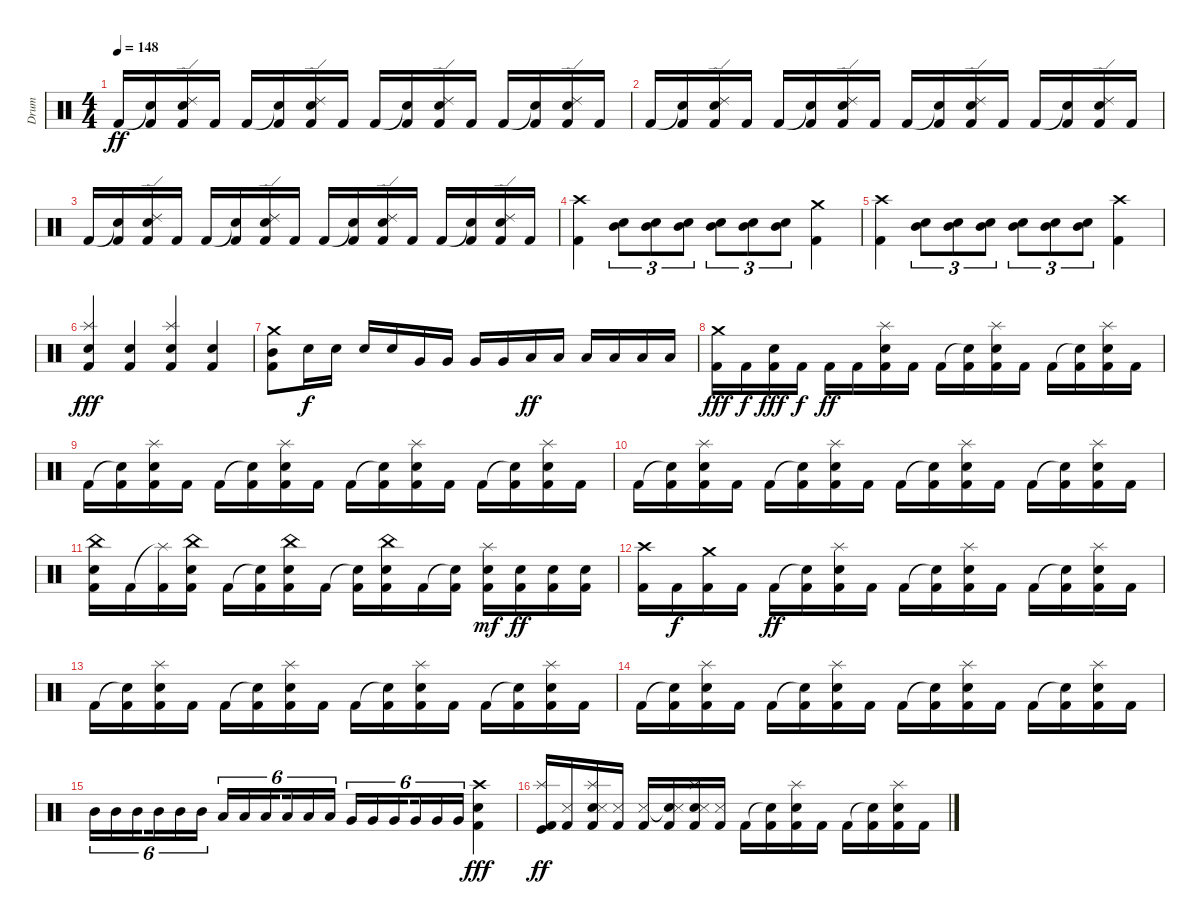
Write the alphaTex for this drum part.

\track ("Drum" "Drum") {instrument percussion}
\staff {score}
\articulation defaults
\ts (4 4)
\tempo 148
\clef neutral
\ks c "Kick (hit) 2".16{dy ff}
("Snare (hit)"{t} "Kick (hit) 2").16 ("Ride (edge) 2" "Snare (hit) 2" "Kick (hit) 2").16 "Kick (hit) 2".16 "Kick (hit) 2".16 ("Snare (hit)"{t} "Kick (hit) 2").16 ("Ride (edge) 2" "Snare (hit) 2" "Kick (hit) 2").16 "Kick (hit) 2".16 "Kick (hit) 2".16 ("Snare (hit)"{t} "Kick (hit) 2").16 ("Ride (edge) 2" "Snare (hit) 2" "Kick (hit) 2").16 "Kick (hit) 2".16 "Kick (hit) 2".16 ("Snare (hit)"{t} "Kick (hit) 2").16 ("Ride (edge) 2" "Snare (hit) 2" "Kick (hit) 2").16 "Kick (hit) 2".16 |
"Kick (hit) 2".16 ("Snare (hit)"{t} "Kick (hit) 2").16 ("Ride (edge) 2" "Snare (hit) 2" "Kick (hit) 2").16 "Kick (hit) 2".16 "Kick (hit) 2".16 ("Snare (hit)"{t} "Kick (hit) 2").16 ("Ride (edge) 2" "Snare (hit) 2" "Kick (hit) 2").16 "Kick (hit) 2".16 "Kick (hit) 2".16 ("Snare (hit)"{t} "Kick (hit) 2").16 ("Ride (edge) 2" "Snare (hit) 2" "Kick (hit) 2").16 "Kick (hit) 2".16 "Kick (hit) 2".16 ("Snare (hit)"{t} "Kick (hit) 2").16 ("Ride (edge) 2" "Snare (hit) 2" "Kick (hit) 2").16 "Kick (hit) 2".16 |
"Kick (hit) 2".16 ("Snare (hit)"{t} "Kick (hit) 2").16 ("Ride (edge) 2" "Snare (hit) 2" "Kick (hit) 2").16 "Kick (hit) 2".16 "Kick (hit) 2".16 ("Snare (hit)"{t} "Kick (hit) 2").16 ("Ride (edge) 2" "Snare (hit) 2" "Kick (hit) 2").16 "Kick (hit) 2".16 "Kick (hit) 2".16 ("Snare (hit)"{t} "Kick (hit) 2").16 ("Ride (edge) 2" "Snare (hit) 2" "Kick (hit) 2").16 "Kick (hit) 2".16 "Kick (hit) 2".16 ("Snare (hit)"{t} "Kick (hit) 2").16 ("Ride (edge) 2" "Snare (hit) 2" "Kick (hit) 2").16 "Kick (hit) 2".16 |
("Crash high (hit)" "Kick (hit) 2").4 ("Mid Tom (hit)" "Snare (hit) 2").8{tu (3 2)} ("Mid Tom (hit)" "Snare (hit) 2").8{tu (3 2)} ("Mid Tom (hit)" "Snare (hit) 2").8{tu (3 2)} ("Mid Tom (hit)" "Snare (hit) 2").8{tu (3 2)} ("Mid Tom (hit)" "Snare (hit) 2").8{tu (3 2)} ("Mid Tom (hit)" "Snare (hit) 2").8{tu (3 2)} ("Crash medium (hit)" "Kick (hit) 2").4 |
("Crash high (hit)" "Kick (hit) 2").4 ("Mid Tom (hit)" "Snare (hit) 2").8{tu (3 2)} ("Mid Tom (hit)" "Snare (hit) 2").8{tu (3 2)} ("Mid Tom (hit)" "Snare (hit) 2").8{tu (3 2)} ("Mid Tom (hit)" "Snare (hit) 2").8{tu (3 2)} ("Mid Tom (hit)" "Snare (hit) 2").8{tu (3 2)} ("Mid Tom (hit)" "Snare (hit) 2").8{tu (3 2)} ("Crash high (hit)" "Kick (hit) 2").4 |
("Splash (hit)" "Electric Snare (hit)" "Kick (hit) 2").4{dy fff} ("Electric Snare (hit)" "Kick (hit) 2").4 ("Splash (hit)" "Electric Snare (hit)" "Kick (hit) 2").4 ("Electric Snare (hit)" "Kick (hit) 2").4 |
("Crash medium (hit)" "Mid Tom (hit)" "Kick (hit) 2").8 "Snare (hit) 2".16{dy f} "Snare (hit) 2".16 "Snare (hit) 2".16 "Snare (hit) 2".16 "Very Low Tom (hit)".16 "Very Low Tom (hit)".16 "Very Low Tom (hit)".16 "Very Low Tom (hit)".16 "Low Floor Tom (hit)".16{dy ff} "Low Floor Tom (hit)".16 "Low Floor Tom (hit)".16 "Low Floor Tom (hit)".16 "Low Floor Tom (hit)".16 "Low Floor Tom (hit)".16 |
("Crash medium (hit)" "Kick (hit) 2").16{dy fff} "Kick (hit) 2".16{dy f} ("Snare (hit) 2" "Kick (hit) 2").16{dy fff} "Kick (hit) 2".16{dy f} "Kick (hit) 2".16{dy ff} "Kick (hit) 2".16 ("Splash (hit)" "Snare (hit) 2" "Kick (hit) 2").16 "Kick (hit) 2".16 "Kick (hit) 2".16 ("Snare (hit)"{t} "Kick (hit) 2").16 ("Splash (hit)" "Snare (hit) 2" "Kick (hit) 2").16 "Kick (hit) 2".16 "Kick (hit) 2".16 ("Snare (hit)"{t} "Kick (hit) 2").16 ("Splash (hit)" "Snare (hit) 2" "Kick (hit) 2").16 "Kick (hit) 2".16 |
"Kick (hit) 2".16 ("Snare (hit)"{t} "Kick (hit) 2").16 ("Splash (hit)" "Snare (hit) 2" "Kick (hit) 2").16 "Kick (hit) 2".16 "Kick (hit) 2".16 ("Snare (hit)"{t} "Kick (hit) 2").16 ("Splash (hit)" "Snare (hit) 2" "Kick (hit) 2").16 "Kick (hit) 2".16 "Kick (hit) 2".16 ("Snare (hit)"{t} "Kick (hit) 2").16 ("Splash (hit)" "Snare (hit) 2" "Kick (hit) 2").16 "Kick (hit) 2".16 "Kick (hit) 2".16 ("Snare (hit)"{t} "Kick (hit) 2").16 ("Splash (hit)" "Snare (hit) 2" "Kick (hit) 2").16 "Kick (hit) 2".16 |
"Kick (hit) 2".16 ("Snare (hit)"{t} "Kick (hit) 2").16 ("Splash (hit)" "Snare (hit) 2" "Kick (hit) 2").16 "Kick (hit) 2".16 "Kick (hit) 2".16 ("Snare (hit)"{t} "Kick (hit) 2").16 ("Splash (hit)" "Snare (hit) 2" "Kick (hit) 2").16 "Kick (hit) 2".16 "Kick (hit) 2".16 ("Snare (hit)"{t} "Kick (hit) 2").16 ("Splash (hit)" "Snare (hit) 2" "Kick (hit) 2").16 "Kick (hit) 2".16 "Kick (hit) 2".16 ("Snare (hit)"{t} "Kick (hit) 2").16 ("Splash (hit)" "Snare (hit) 2" "Kick (hit) 2").16 "Kick (hit) 2".16 |
("China (hit)" "Snare (hit) 2" "Kick (hit) 2").16 "Kick (hit) 2".16 ("Splash (hit)"{t} "Kick (hit) 2").16 ("China (hit)" "Snare (hit) 2" "Kick (hit) 2").16 "Kick (hit) 2".16 ("Snare (hit)"{t} "Kick (hit) 2").16 ("China (hit)" "Snare (hit) 2" "Kick (hit) 2").16 "Kick (hit) 2".16 ("Snare (hit)"{t} "Kick (hit) 2").16 ("China (hit)" "Snare (hit) 2" "Kick (hit) 2").16 "Kick (hit) 2".16 ("Snare (hit)"{t} "Kick (hit) 2").16 ("Splash (hit)" "Snare (hit) 2" "Kick (hit) 2").16{dy mf} ("Snare (hit) 2" "Kick (hit) 2").16{dy ff} ("Snare (hit) 2" "Kick (hit) 2").16 ("Snare (hit) 2" "Kick (hit) 2").16 |
("Crash high (hit)" "Kick (hit) 2").16 "Kick (hit) 2".16{dy f} ("Crash medium (hit)" "Kick (hit) 2").16 "Kick (hit) 2".16 "Kick (hit) 2".16{dy ff} ("Snare (hit)"{t} "Kick (hit) 2").16 ("Splash (hit)" "Snare (hit) 2" "Kick (hit) 2").16 "Kick (hit) 2".16 "Kick (hit) 2".16 ("Snare (hit)"{t} "Kick (hit) 2").16 ("Splash (hit)" "Snare (hit) 2" "Kick (hit) 2").16 "Kick (hit) 2".16 "Kick (hit) 2".16 ("Snare (hit)"{t} "Kick (hit) 2").16 ("Splash (hit)" "Snare (hit) 2" "Kick (hit) 2").16 "Kick (hit) 2".16 |
"Kick (hit) 2".16 ("Snare (hit)"{t} "Kick (hit) 2").16 ("Splash (hit)" "Snare (hit) 2" "Kick (hit) 2").16 "Kick (hit) 2".16 "Kick (hit) 2".16 ("Snare (hit)"{t} "Kick (hit) 2").16 ("Splash (hit)" "Snare (hit) 2" "Kick (hit) 2").16 "Kick (hit) 2".16 "Kick (hit) 2".16 ("Snare (hit)"{t} "Kick (hit) 2").16 ("Splash (hit)" "Snare (hit) 2" "Kick (hit) 2").16 "Kick (hit) 2".16 "Kick (hit) 2".16 ("Snare (hit)"{t} "Kick (hit) 2").16 ("Splash (hit)" "Snare (hit) 2" "Kick (hit) 2").16 "Kick (hit) 2".16 |
"Kick (hit) 2".16 ("Snare (hit)"{t} "Kick (hit) 2").16 ("Splash (hit)" "Snare (hit) 2" "Kick (hit) 2").16 "Kick (hit) 2".16 "Kick (hit) 2".16 ("Snare (hit)"{t} "Kick (hit) 2").16 ("Splash (hit)" "Snare (hit) 2" "Kick (hit) 2").16 "Kick (hit) 2".16 "Kick (hit) 2".16 ("Snare (hit)"{t} "Kick (hit) 2").16 ("Splash (hit)" "Snare (hit) 2" "Kick (hit) 2").16 "Kick (hit) 2".16 "Kick (hit) 2".16 ("Snare (hit)"{t} "Kick (hit) 2").16 ("Splash (hit)" "Snare (hit) 2" "Kick (hit) 2").16 "Kick (hit) 2".16 |
"Mid Tom (hit)".16{tu (6 4)} "Mid Tom (hit)".16{tu (6 4)} "Mid Tom (hit)".16{tu (6 4) beam splitsecondary} "Mid Tom (hit)".16{tu (6 4)} "Mid Tom (hit)".16{tu (6 4)} "Mid Tom (hit)".16{tu (6 4)} "Low Tom (hit)".16{tu (6 4)} "Low Tom (hit)".16{tu (6 4)} "Low Tom (hit)".16{tu (6 4) beam splitsecondary} "Low Tom (hit)".16{tu (6 4)} "Low Tom (hit)".16{tu (6 4)} "Low Tom (hit)".16{tu (6 4)} "Very Low Tom (hit)".16{tu (6 4)} "Very Low Tom (hit)".16{tu (6 4)} "Very Low Tom (hit)".16{tu (6 4) beam splitsecondary} "Very Low Tom (hit)".16{tu (6 4)} "Very Low Tom (hit)".16{tu (6 4)} "Very Low Tom (hit)".16{tu (6 4)} ("Crash high (hit)" "Snare (hit) 2" "Kick (hit) 2").4{dy fff} |
("Splash (hit)" "Kick (hit)" "Kick (hit) 2").16{dy ff} ("Metronome (hit)" "Kick (hit) 2").16 ("Splash (hit)" "Snare (hit) 2" "Metronome (hit)" "Kick (hit) 2").16 ("Metronome (hit)" "Kick (hit) 2").16 ("Metronome (hit)" "Kick (hit) 2").16 ("Snare (hit)"{t} "Metronome (hit)" "Kick (hit) 2").16 ("Splash (hit)" "Snare (hit) 2" "Metronome (hit)" "Kick (hit) 2").16 ("Metronome (hit)" "Kick (hit) 2").16 "Kick (hit) 2".16 ("Snare (hit)"{t} "Kick (hit) 2").16 ("Splash (hit)" "Snare (hit) 2" "Kick (hit) 2").16 "Kick (hit) 2".16 "Kick (hit) 2".16 ("Snare (hit)"{t} "Kick (hit) 2").16 ("Splash (hit)" "Snare (hit) 2" "Kick (hit) 2").16 "Kick (hit) 2".16
